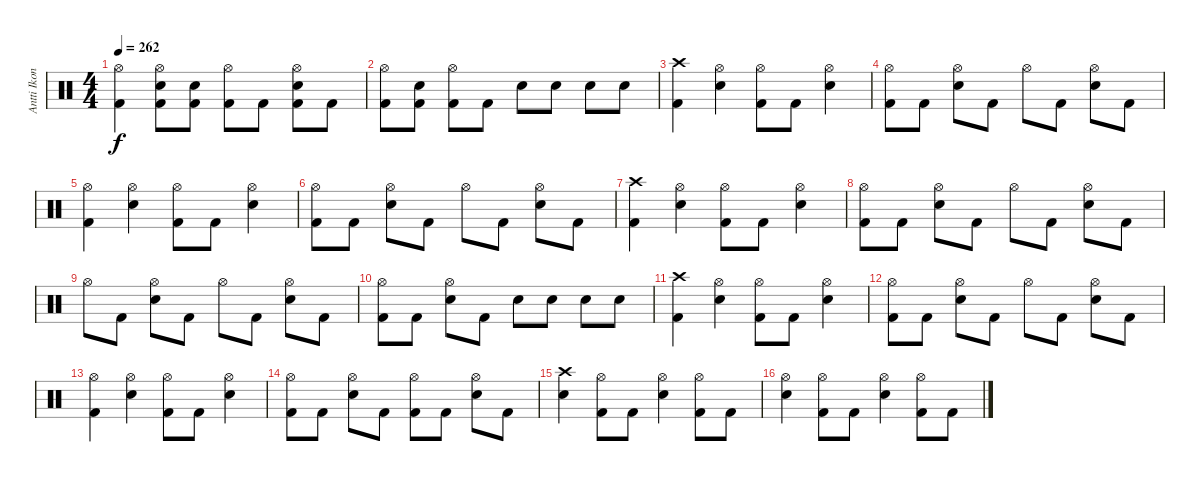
\track ("Antti Ikonen" "Antti Ikon") {instrument percussion}
\staff {score}
\articulation defaults
\ts (4 4)
\tempo 262
\clef neutral
\ks c
("Hi-Hat (open)" "Kick (hit) 2").4{dy f} ("Hi-Hat (open)" "Electric Snare (hit)" "Kick (hit) 2").8 ("Electric Snare (hit)" "Kick (hit) 2").8 ("Hi-Hat (open)" "Kick (hit) 2").8 "Kick (hit) 2".8 ("Hi-Hat (open)" "Electric Snare (hit)" "Kick (hit) 2").8 "Kick (hit) 2".8 |
("Hi-Hat (open)" "Kick (hit) 2").8 ("Electric Snare (hit)" "Kick (hit) 2").8 ("Hi-Hat (open)" "Kick (hit) 2").8 "Kick (hit) 2".8 "Electric Snare (hit)".8 "Electric Snare (hit)".8 "Electric Snare (hit)".8 "Electric Snare (hit)".8 |
("Crash high (hit)" "Kick (hit) 2").4 ("Hi-Hat (open)" "Electric Snare (hit)").4 ("Hi-Hat (open)" "Kick (hit) 2").8 "Kick (hit) 2".8 ("Hi-Hat (open)" "Electric Snare (hit)").4 |
("Hi-Hat (open)" "Kick (hit) 2").8 "Kick (hit) 2".8 ("Hi-Hat (open)" "Electric Snare (hit)").8 "Kick (hit) 2".8 "Hi-Hat (open)".8 "Kick (hit) 2".8 ("Hi-Hat (open)" "Electric Snare (hit)").8 "Kick (hit) 2".8 |
("Hi-Hat (open)" "Kick (hit) 2").4 ("Hi-Hat (open)" "Electric Snare (hit)").4 ("Hi-Hat (open)" "Kick (hit) 2").8 "Kick (hit) 2".8 ("Hi-Hat (open)" "Electric Snare (hit)").4 |
("Hi-Hat (open)" "Kick (hit) 2").8 "Kick (hit) 2".8 ("Hi-Hat (open)" "Electric Snare (hit)").8 "Kick (hit) 2".8 "Hi-Hat (open)".8 "Kick (hit) 2".8 ("Hi-Hat (open)" "Electric Snare (hit)").8 "Kick (hit) 2".8 |
("Crash high (hit)" "Kick (hit) 2").4 ("Hi-Hat (open)" "Electric Snare (hit)").4 ("Hi-Hat (open)" "Kick (hit) 2").8 "Kick (hit) 2".8 ("Hi-Hat (open)" "Electric Snare (hit)").4 |
("Hi-Hat (open)" "Kick (hit) 2").8 "Kick (hit) 2".8 ("Hi-Hat (open)" "Electric Snare (hit)").8 "Kick (hit) 2".8 "Hi-Hat (open)".8 "Kick (hit) 2".8 ("Hi-Hat (open)" "Electric Snare (hit)").8 "Kick (hit) 2".8 |
"Hi-Hat (open)".8 "Kick (hit) 2".8 ("Hi-Hat (open)" "Electric Snare (hit)").8 "Kick (hit) 2".8 "Hi-Hat (open)".8 "Kick (hit) 2".8 ("Hi-Hat (open)" "Electric Snare (hit)").8 "Kick (hit) 2".8 |
("Hi-Hat (open)" "Kick (hit) 2").8 "Kick (hit) 2".8 ("Hi-Hat (open)" "Electric Snare (hit)").8 "Kick (hit) 2".8 "Electric Snare (hit)".8 "Electric Snare (hit)".8 "Electric Snare (hit)".8 "Electric Snare (hit)".8 |
("Crash high (hit)" "Kick (hit) 2").4 ("Hi-Hat (open)" "Electric Snare (hit)").4 ("Hi-Hat (open)" "Kick (hit) 2").8 "Kick (hit) 2".8 ("Hi-Hat (open)" "Electric Snare (hit)").4 |
("Hi-Hat (open)" "Kick (hit) 2").8 "Kick (hit) 2".8 ("Hi-Hat (open)" "Electric Snare (hit)").8 "Kick (hit) 2".8 "Hi-Hat (open)".8 "Kick (hit) 2".8 ("Hi-Hat (open)" "Electric Snare (hit)").8 "Kick (hit) 2".8 |
("Hi-Hat (open)" "Kick (hit) 2").4 ("Hi-Hat (open)" "Electric Snare (hit)").4 ("Hi-Hat (open)" "Kick (hit) 2").8 "Kick (hit) 2".8 ("Hi-Hat (open)" "Electric Snare (hit)").4 |
("Hi-Hat (open)" "Kick (hit) 2").8 "Kick (hit) 2".8 ("Hi-Hat (open)" "Electric Snare (hit)").8 "Kick (hit) 2".8 ("Hi-Hat (open)" "Kick (hit) 2").8 "Kick (hit) 2".8 ("Hi-Hat (open)" "Electric Snare (hit)").8 "Kick (hit) 2".8 |
("Crash high (hit)" "Electric Snare (hit)").4 ("Hi-Hat (open)" "Kick (hit) 2").8 "Kick (hit) 2".8 ("Hi-Hat (open)" "Electric Snare (hit)").4 ("Hi-Hat (open)" "Kick (hit) 2").8 "Kick (hit) 2".8 |
("Hi-Hat (open)" "Electric Snare (hit)").4 ("Hi-Hat (open)" "Kick (hit) 2").8 "Kick (hit) 2".8 ("Hi-Hat (open)" "Electric Snare (hit)").4 ("Hi-Hat (open)" "Kick (hit) 2").8 "Kick (hit) 2".8
